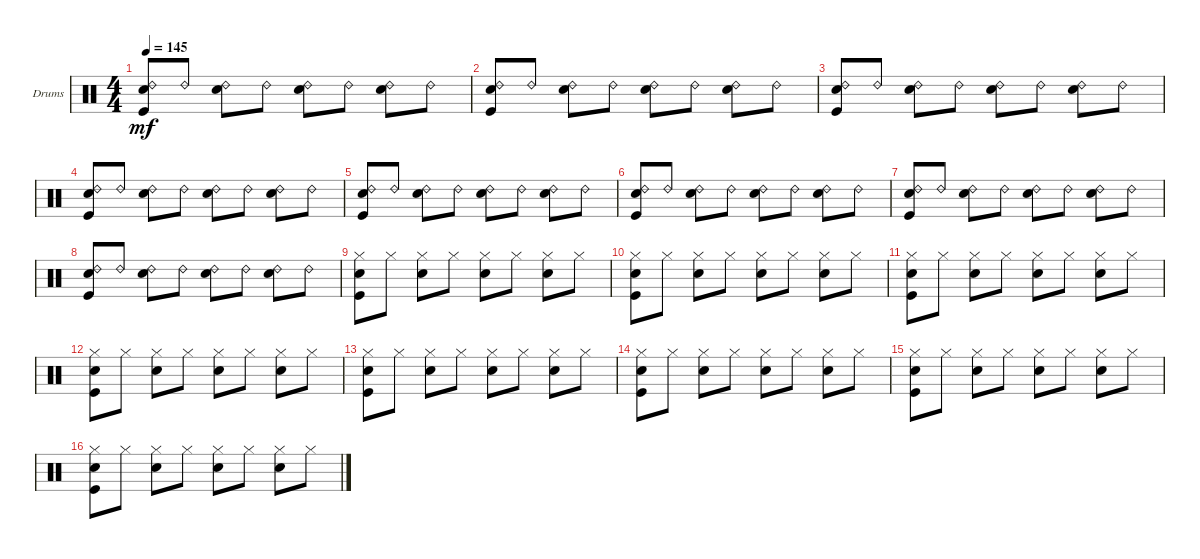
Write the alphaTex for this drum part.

\bracketExtendMode groupsimilarinstruments
\firstSystemTrackNameOrientation horizontal
\otherSystemsTrackNameOrientation horizontal
\track ("Drumkit" "Drums") {instrument percussion}
\staff {score}
\articulation defaults
\ts (4 4)
\tempo 145
\clef neutral
\ks c
("Kick (hit)" "Snare (hit) 2" "Ride (bell) 2").8{dy mf} "Ride (bell) 2".8 ("Snare (hit) 2" "Ride (bell) 2").8 "Ride (bell) 2".8 ("Snare (hit) 2" "Ride (bell) 2").8 "Ride (bell) 2".8 ("Snare (hit) 2" "Ride (bell) 2").8 "Ride (bell) 2".8 |
("Kick (hit)" "Snare (hit) 2" "Ride (bell) 2").8 "Ride (bell) 2".8 ("Snare (hit) 2" "Ride (bell) 2").8 "Ride (bell) 2".8 ("Snare (hit) 2" "Ride (bell) 2").8 "Ride (bell) 2".8 ("Snare (hit) 2" "Ride (bell) 2").8 "Ride (bell) 2".8 |
("Kick (hit)" "Snare (hit) 2" "Ride (bell) 2").8 "Ride (bell) 2".8 ("Snare (hit) 2" "Ride (bell) 2").8 "Ride (bell) 2".8 ("Snare (hit) 2" "Ride (bell) 2").8 "Ride (bell) 2".8 ("Snare (hit) 2" "Ride (bell) 2").8 "Ride (bell) 2".8 |
("Kick (hit)" "Snare (hit) 2" "Ride (bell) 2").8 "Ride (bell) 2".8 ("Snare (hit) 2" "Ride (bell) 2").8 "Ride (bell) 2".8 ("Snare (hit) 2" "Ride (bell) 2").8 "Ride (bell) 2".8 ("Snare (hit) 2" "Ride (bell) 2").8 "Ride (bell) 2".8 |
("Kick (hit)" "Snare (hit) 2" "Ride (bell) 2").8 "Ride (bell) 2".8 ("Snare (hit) 2" "Ride (bell) 2").8 "Ride (bell) 2".8 ("Snare (hit) 2" "Ride (bell) 2").8 "Ride (bell) 2".8 ("Snare (hit) 2" "Ride (bell) 2").8 "Ride (bell) 2".8 |
("Kick (hit)" "Snare (hit) 2" "Ride (bell) 2").8 "Ride (bell) 2".8 ("Snare (hit) 2" "Ride (bell) 2").8 "Ride (bell) 2".8 ("Snare (hit) 2" "Ride (bell) 2").8 "Ride (bell) 2".8 ("Snare (hit) 2" "Ride (bell) 2").8 "Ride (bell) 2".8 |
("Kick (hit)" "Snare (hit) 2" "Ride (bell) 2").8 "Ride (bell) 2".8 ("Snare (hit) 2" "Ride (bell) 2").8 "Ride (bell) 2".8 ("Snare (hit) 2" "Ride (bell) 2").8 "Ride (bell) 2".8 ("Snare (hit) 2" "Ride (bell) 2").8 "Ride (bell) 2".8 |
("Kick (hit)" "Snare (hit) 2" "Ride (bell) 2").8 "Ride (bell) 2".8 ("Snare (hit) 2" "Ride (bell) 2").8 "Ride (bell) 2".8 ("Snare (hit) 2" "Ride (bell) 2").8 "Ride (bell) 2".8 ("Snare (hit) 2" "Ride (bell) 2").8 "Ride (bell) 2".8 |
("Hi-Hat (closed)" "Kick (hit)" "Snare (hit) 2").8 "Hi-Hat (closed)".8 ("Hi-Hat (closed)" "Snare (hit) 2").8 "Hi-Hat (closed)".8 ("Hi-Hat (closed)" "Snare (hit) 2").8 "Hi-Hat (closed)".8 ("Hi-Hat (closed)" "Snare (hit) 2").8 "Hi-Hat (closed)".8 |
("Hi-Hat (closed)" "Kick (hit)" "Snare (hit) 2").8 "Hi-Hat (closed)".8 ("Hi-Hat (closed)" "Snare (hit) 2").8 "Hi-Hat (closed)".8 ("Hi-Hat (closed)" "Snare (hit) 2").8 "Hi-Hat (closed)".8 ("Hi-Hat (closed)" "Snare (hit) 2").8 "Hi-Hat (closed)".8 |
("Hi-Hat (closed)" "Kick (hit)" "Snare (hit) 2").8 "Hi-Hat (closed)".8 ("Hi-Hat (closed)" "Snare (hit) 2").8 "Hi-Hat (closed)".8 ("Hi-Hat (closed)" "Snare (hit) 2").8 "Hi-Hat (closed)".8 ("Hi-Hat (closed)" "Snare (hit) 2").8 "Hi-Hat (closed)".8 |
("Hi-Hat (closed)" "Kick (hit)" "Snare (hit) 2").8 "Hi-Hat (closed)".8 ("Hi-Hat (closed)" "Snare (hit) 2").8 "Hi-Hat (closed)".8 ("Hi-Hat (closed)" "Snare (hit) 2").8 "Hi-Hat (closed)".8 ("Hi-Hat (closed)" "Snare (hit) 2").8 "Hi-Hat (closed)".8 |
("Hi-Hat (closed)" "Kick (hit)" "Snare (hit) 2").8 "Hi-Hat (closed)".8 ("Hi-Hat (closed)" "Snare (hit) 2").8 "Hi-Hat (closed)".8 ("Hi-Hat (closed)" "Snare (hit) 2").8 "Hi-Hat (closed)".8 ("Hi-Hat (closed)" "Snare (hit) 2").8 "Hi-Hat (closed)".8 |
("Hi-Hat (closed)" "Kick (hit)" "Snare (hit) 2").8 "Hi-Hat (closed)".8 ("Hi-Hat (closed)" "Snare (hit) 2").8 "Hi-Hat (closed)".8 ("Hi-Hat (closed)" "Snare (hit) 2").8 "Hi-Hat (closed)".8 ("Hi-Hat (closed)" "Snare (hit) 2").8 "Hi-Hat (closed)".8 |
("Hi-Hat (closed)" "Kick (hit)" "Snare (hit) 2").8 "Hi-Hat (closed)".8 ("Hi-Hat (closed)" "Snare (hit) 2").8 "Hi-Hat (closed)".8 ("Hi-Hat (closed)" "Snare (hit) 2").8 "Hi-Hat (closed)".8 ("Hi-Hat (closed)" "Snare (hit) 2").8 "Hi-Hat (closed)".8 |
("Hi-Hat (closed)" "Kick (hit)" "Snare (hit) 2").8 "Hi-Hat (closed)".8 ("Hi-Hat (closed)" "Snare (hit) 2").8 "Hi-Hat (closed)".8 ("Hi-Hat (closed)" "Snare (hit) 2").8 "Hi-Hat (closed)".8 ("Hi-Hat (closed)" "Snare (hit) 2").8 "Hi-Hat (closed)".8
